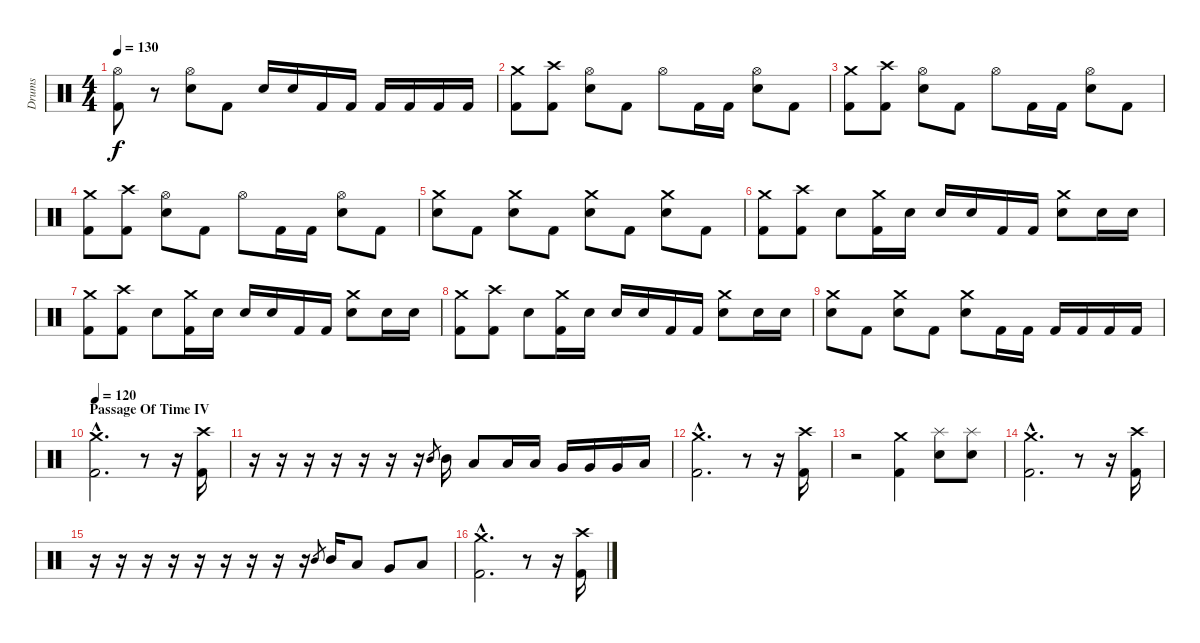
\track ("Drums" "Drums") {instrument percussion}
\staff {score}
\articulation defaults
\ts (4 4)
\tempo 130
\clef neutral
\ks c
("Hi-Hat (open)" "Kick (hit) 2").8{dy f} r.8 ("Hi-Hat (open)" "Electric Snare (hit)").8 "Kick (hit) 2".8 "Electric Snare (hit)".16 "Electric Snare (hit)".16 "Kick (hit) 2".16 "Kick (hit) 2".16 "Kick (hit) 2".16 "Kick (hit) 2".16 "Kick (hit) 2".16 "Kick (hit) 2".16 |
\section ("" "")
("Crash medium (hit)" "Kick (hit) 2").8 ("Crash high (hit)" "Kick (hit) 2").8 ("Hi-Hat (open)" "Electric Snare (hit)").8 "Kick (hit) 2".8 "Hi-Hat (open)".8 "Kick (hit) 2".16 "Kick (hit) 2".16 ("Hi-Hat (open)" "Electric Snare (hit)").8 "Kick (hit) 2".8 |
("Crash medium (hit)" "Kick (hit) 2").8 ("Crash high (hit)" "Kick (hit) 2").8 ("Hi-Hat (open)" "Electric Snare (hit)").8 "Kick (hit) 2".8 "Hi-Hat (open)".8 "Kick (hit) 2".16 "Kick (hit) 2".16 ("Hi-Hat (open)" "Electric Snare (hit)").8 "Kick (hit) 2".8 |
("Crash medium (hit)" "Kick (hit) 2").8 ("Crash high (hit)" "Kick (hit) 2").8 ("Hi-Hat (open)" "Electric Snare (hit)").8 "Kick (hit) 2".8 "Hi-Hat (open)".8 "Kick (hit) 2".16 "Kick (hit) 2".16 ("Hi-Hat (open)" "Electric Snare (hit)").8 "Kick (hit) 2".8 |
("Crash medium (hit)" "Electric Snare (hit)").8 "Kick (hit) 2".8 ("Crash medium (hit)" "Electric Snare (hit)").8 "Kick (hit) 2".8 ("Crash medium (hit)" "Electric Snare (hit)").8 "Kick (hit) 2".8 ("Crash medium (hit)" "Electric Snare (hit)").8 "Kick (hit) 2".8 |
("Crash medium (hit)" "Kick (hit) 2").8 ("Crash high (hit)" "Kick (hit) 2").8 "Electric Snare (hit)".8 ("Crash medium (hit)" "Kick (hit) 2").16 "Electric Snare (hit)".16 "Electric Snare (hit)".16 "Electric Snare (hit)".16 "Kick (hit) 2".16 "Kick (hit) 2".16 ("Crash medium (hit)" "Electric Snare (hit)").8 "Electric Snare (hit)".16 "Electric Snare (hit)".16 |
("Crash medium (hit)" "Kick (hit) 2").8 ("Crash high (hit)" "Kick (hit) 2").8 "Electric Snare (hit)".8 ("Crash medium (hit)" "Kick (hit) 2").16 "Electric Snare (hit)".16 "Electric Snare (hit)".16 "Electric Snare (hit)".16 "Kick (hit) 2".16 "Kick (hit) 2".16 ("Crash medium (hit)" "Electric Snare (hit)").8 "Electric Snare (hit)".16 "Electric Snare (hit)".16 |
("Crash medium (hit)" "Kick (hit) 2").8 ("Crash high (hit)" "Kick (hit) 2").8 "Electric Snare (hit)".8 ("Crash medium (hit)" "Kick (hit) 2").16 "Electric Snare (hit)".16 "Electric Snare (hit)".16 "Electric Snare (hit)".16 "Kick (hit) 2".16 "Kick (hit) 2".16 ("Crash medium (hit)" "Electric Snare (hit)").8 "Electric Snare (hit)".16 "Electric Snare (hit)".16 |
("Crash medium (hit)" "Electric Snare (hit)").8 "Kick (hit) 2".8 ("Crash medium (hit)" "Electric Snare (hit)").8 "Kick (hit) 2".8 ("Crash medium (hit)" "Electric Snare (hit)").8 "Kick (hit) 2".16 "Kick (hit) 2".16 "Kick (hit) 2".16 "Kick (hit) 2".16 "Kick (hit) 2".16 "Kick (hit) 2".16 |
\section ("" "Passage Of Time IV")
\tempo 120
("Crash medium (hit)"{hac} "Kick (hit) 2"{hac}).2{d} r.8 r.16 ("Crash high (hit)" "Kick (hit) 2").16 |
r.16 r.16 r.16 r.16 r.16 r.16 r.16 "Mid Tom (hit)".8{gr} "Mid Tom (hit)".16 "Low Tom (hit)".8 "Low Tom (hit)".16 "Low Tom (hit)".16 "Very Low Tom (hit)".16 "Very Low Tom (hit)".16 "Very Low Tom (hit)".16 "Low Floor Tom (hit)".16 |
("Crash medium (hit)"{hac} "Kick (hit) 2"{hac}).2{d} r.8 r.16 ("Crash high (hit)" "Kick (hit) 2").16 |
r.2 ("Crash medium (hit)" "Kick (hit) 2").4 ("Splash (hit)" "Electric Snare (hit)").8 ("Splash (hit)" "Electric Snare (hit)").8 |
("Crash medium (hit)"{hac} "Kick (hit) 2"{hac}).2{d} r.8 r.16 ("Crash high (hit)" "Kick (hit) 2").16 |
r.16 r.16 r.16 r.16 r.16 r.16 r.16 r.16 r.16 "Mid Tom (hit)".8{gr} "Mid Tom (hit)".16 "Low Tom (hit)".8 "Very Low Tom (hit)".8 "Low Floor Tom (hit)".8 |
("Crash medium (hit)"{hac} "Kick (hit) 2"{hac}).2{d} r.8 r.16 ("Crash high (hit)" "Kick (hit) 2").16
